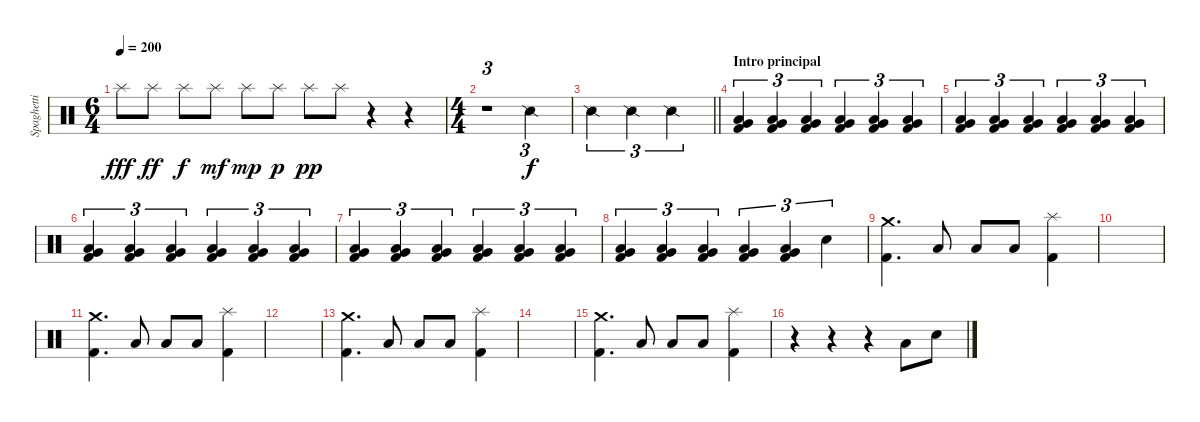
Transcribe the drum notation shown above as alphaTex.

\track ("Spaghetti" "Spaghetti") {instrument percussion}
\staff {score}
\articulation defaults
\ts (6 4)
\tempo 200
\clef neutral
\ks c "Splash (hit)".8{dy fff} "Splash (hit)".8{dy ff} "Splash (hit)".8{dy f} "Splash (hit)".8{dy mf} "Splash (hit)".8{dy mp} "Splash (hit)".8{dy p} "Splash (hit)".8{dy pp} "Splash (hit)".8
r.4 r.4 |
\ts (4 4)
r.1{tu (3 2)} "Snare (side stick) 2".2{tu (3 2) dy f} |
\barLineRight lightlight "Snare (side stick) 2".2{tu (3 2)} "Snare (side stick) 2".2{tu (3 2)} "Snare (side stick) 2".2{tu (3 2)}
|
\section ("" "Intro principal")
("Very Low Tom (hit)" "Low Floor Tom (hit)" "Kick (hit) 2").4{tu (3 2)} ("Very Low Tom (hit)" "Low Floor Tom (hit)" "Kick (hit) 2").4{tu (3 2)} ("Very Low Tom (hit)" "Low Floor Tom (hit)" "Kick (hit) 2").4{tu (3 2)} ("Very Low Tom (hit)" "Low Floor Tom (hit)" "Kick (hit) 2").4{tu (3 2)} ("Very Low Tom (hit)" "Low Floor Tom (hit)" "Kick (hit) 2").4{tu (3 2)} ("Very Low Tom (hit)" "Low Floor Tom (hit)" "Kick (hit) 2").4{tu (3 2)} |
("Very Low Tom (hit)" "Low Floor Tom (hit)" "Kick (hit) 2").4{tu (3 2)} ("Very Low Tom (hit)" "Low Floor Tom (hit)" "Kick (hit) 2").4{tu (3 2)} ("Very Low Tom (hit)" "Low Floor Tom (hit)" "Kick (hit) 2").4{tu (3 2)} ("Very Low Tom (hit)" "Low Floor Tom (hit)" "Kick (hit) 2").4{tu (3 2)} ("Very Low Tom (hit)" "Low Floor Tom (hit)" "Kick (hit) 2").4{tu (3 2)} ("Very Low Tom (hit)" "Low Floor Tom (hit)" "Kick (hit) 2").4{tu (3 2)} |
("Very Low Tom (hit)" "Low Floor Tom (hit)" "Kick (hit) 2").4{tu (3 2)} ("Very Low Tom (hit)" "Low Floor Tom (hit)" "Kick (hit) 2").4{tu (3 2)} ("Very Low Tom (hit)" "Low Floor Tom (hit)" "Kick (hit) 2").4{tu (3 2)} ("Very Low Tom (hit)" "Low Floor Tom (hit)" "Kick (hit) 2").4{tu (3 2)} ("Very Low Tom (hit)" "Low Floor Tom (hit)" "Kick (hit) 2").4{tu (3 2)} ("Very Low Tom (hit)" "Low Floor Tom (hit)" "Kick (hit) 2").4{tu (3 2)} |
("Very Low Tom (hit)" "Low Floor Tom (hit)" "Kick (hit) 2").4{tu (3 2)} ("Very Low Tom (hit)" "Low Floor Tom (hit)" "Kick (hit) 2").4{tu (3 2)} ("Very Low Tom (hit)" "Low Floor Tom (hit)" "Kick (hit) 2").4{tu (3 2)} ("Very Low Tom (hit)" "Low Floor Tom (hit)" "Kick (hit) 2").4{tu (3 2)} ("Very Low Tom (hit)" "Low Floor Tom (hit)" "Kick (hit) 2").4{tu (3 2)} ("Very Low Tom (hit)" "Low Floor Tom (hit)" "Kick (hit) 2").4{tu (3 2)} |
("Very Low Tom (hit)" "Low Floor Tom (hit)" "Kick (hit) 2").4{tu (3 2)} ("Very Low Tom (hit)" "Low Floor Tom (hit)" "Kick (hit) 2").4{tu (3 2)} ("Very Low Tom (hit)" "Low Floor Tom (hit)" "Kick (hit) 2").4{tu (3 2)} ("Very Low Tom (hit)" "Low Floor Tom (hit)" "Kick (hit) 2").4{tu (3 2)} ("Very Low Tom (hit)" "Low Floor Tom (hit)" "Kick (hit) 2").4{tu (3 2)} "Snare (hit) 2".4{tu (3 2)} |
("Crash medium (hit)" "Kick (hit) 2").4{d} "Low Floor Tom (hit)".8 "Low Floor Tom (hit)".8 "Low Floor Tom (hit)".8 ("Splash (hit)" "Kick (hit) 2").4 |
|
("Crash medium (hit)" "Kick (hit) 2").4{d} "Low Floor Tom (hit)".8 "Low Floor Tom (hit)".8 "Low Floor Tom (hit)".8 ("Splash (hit)" "Kick (hit) 2").4 |
|
("Crash medium (hit)" "Kick (hit) 2").4{d} "Low Floor Tom (hit)".8 "Low Floor Tom (hit)".8 "Low Floor Tom (hit)".8 ("Splash (hit)" "Kick (hit) 2").4 |
|
("Crash medium (hit)" "Kick (hit) 2").4{d} "Low Floor Tom (hit)".8 "Low Floor Tom (hit)".8 "Low Floor Tom (hit)".8 ("Splash (hit)" "Kick (hit) 2").4 |
r.4 r.4 r.4 "Low Tom (hit)".8 "Snare (hit) 2".8
